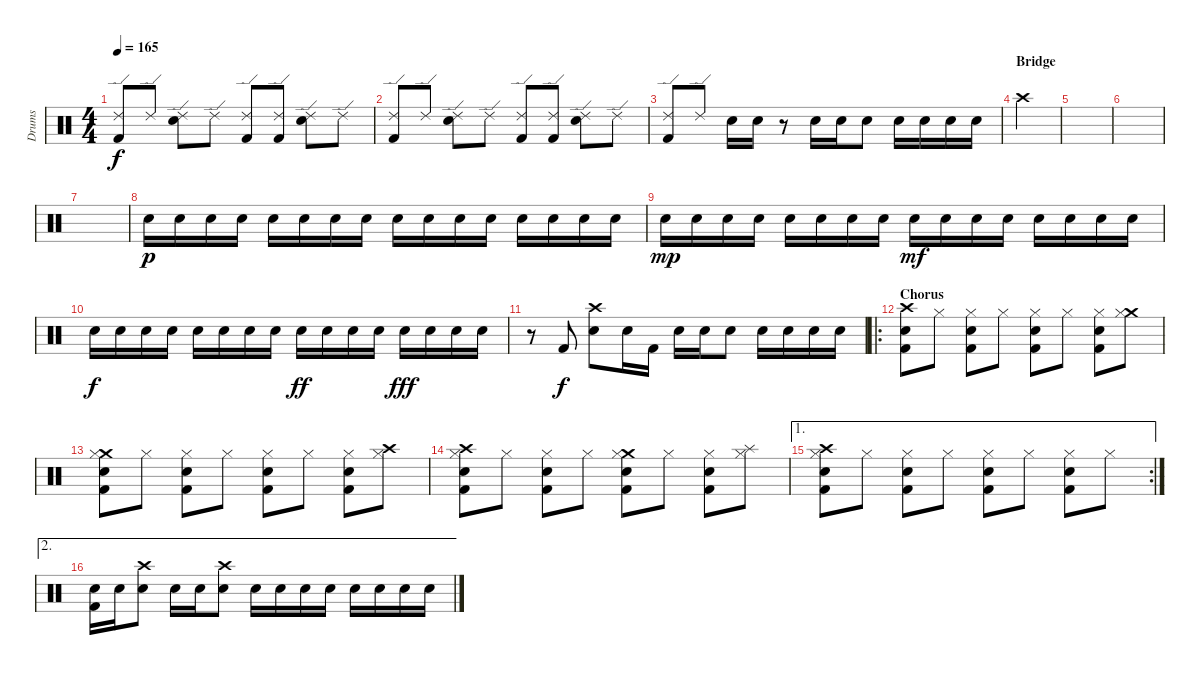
\track ("Drums" "Drums") {instrument percussion}
\staff {score}
\articulation defaults
\ts (4 4)
\tempo 165
\clef neutral
\ks c
("Ride (edge) 2" "Kick (hit) 2").8{dy f} "Ride (edge) 2".8 ("Ride (edge) 2" "Snare (hit) 2").8 "Ride (edge) 2".8 ("Ride (edge) 2" "Kick (hit) 2").8 ("Ride (edge) 2" "Kick (hit) 2").8 ("Ride (edge) 2" "Snare (hit) 2").8 "Ride (edge) 2".8 |
("Ride (edge) 2" "Kick (hit) 2").8 "Ride (edge) 2".8 ("Ride (edge) 2" "Snare (hit) 2").8 "Ride (edge) 2".8 ("Ride (edge) 2" "Kick (hit) 2").8 ("Ride (edge) 2" "Kick (hit) 2").8 ("Ride (edge) 2" "Snare (hit) 2").8 "Ride (edge) 2".8 |
("Ride (edge) 2" "Kick (hit) 2").8 "Ride (edge) 2".8 "Snare (hit) 2".16 "Snare (hit) 2".16 r.8 "Snare (hit) 2".16 "Snare (hit) 2".16 "Snare (hit) 2".8 "Snare (hit) 2".16 "Snare (hit) 2".16 "Snare (hit) 2".16 "Snare (hit) 2".16 |
\section ("" "Bridge")
"Crash high (hit)".4 |
|
|
|
"Snare (hit) 2".16{dy p} "Snare (hit) 2".16 "Snare (hit) 2".16 "Snare (hit) 2".16 "Snare (hit) 2".16 "Snare (hit) 2".16 "Snare (hit) 2".16 "Snare (hit) 2".16 "Snare (hit) 2".16 "Snare (hit) 2".16 "Snare (hit) 2".16 "Snare (hit) 2".16 "Snare (hit) 2".16 "Snare (hit) 2".16 "Snare (hit) 2".16 "Snare (hit) 2".16 |
"Snare (hit) 2".16{dy mp} "Snare (hit) 2".16 "Snare (hit) 2".16 "Snare (hit) 2".16 "Snare (hit) 2".16 "Snare (hit) 2".16 "Snare (hit) 2".16 "Snare (hit) 2".16 "Snare (hit) 2".16{dy mf} "Snare (hit) 2".16 "Snare (hit) 2".16 "Snare (hit) 2".16 "Snare (hit) 2".16 "Snare (hit) 2".16 "Snare (hit) 2".16 "Snare (hit) 2".16 |
"Snare (hit) 2".16{dy f} "Snare (hit) 2".16 "Snare (hit) 2".16 "Snare (hit) 2".16 "Snare (hit) 2".16 "Snare (hit) 2".16 "Snare (hit) 2".16 "Snare (hit) 2".16 "Snare (hit) 2".16{dy ff} "Snare (hit) 2".16 "Snare (hit) 2".16 "Snare (hit) 2".16 "Snare (hit) 2".16{dy fff} "Snare (hit) 2".16 "Snare (hit) 2".16 "Snare (hit) 2".16 |
r.8 "Kick (hit) 2".8{dy f} ("Crash high (hit)" "Snare (hit) 2").8 "Snare (hit) 2".16 "Kick (hit) 2".16 "Snare (hit) 2".16 "Snare (hit) 2".16 "Snare (hit) 2".8 "Snare (hit) 2".16 "Snare (hit) 2".16 "Snare (hit) 2".16 "Snare (hit) 2".16 |
\ro
\section ("" "Chorus")
("Crash high (hit)" "Snare (hit) 2" "Kick (hit) 2").8 "Hi-Hat (closed)".8 ("Hi-Hat (closed)" "Snare (hit) 2" "Kick (hit) 2").8 "Hi-Hat (closed)".8 ("Hi-Hat (closed)" "Snare (hit) 2" "Kick (hit) 2").8 "Hi-Hat (closed)".8 ("Hi-Hat (closed)" "Snare (hit) 2" "Kick (hit) 2").8 ("Crash medium (hit)" "Hi-Hat (closed)").8 |
("Crash medium (hit)" "Hi-Hat (closed)" "Snare (hit) 2" "Kick (hit) 2").8 "Hi-Hat (closed)".8 ("Hi-Hat (closed)" "Snare (hit) 2" "Kick (hit) 2").8 "Hi-Hat (closed)".8 ("Hi-Hat (closed)" "Snare (hit) 2" "Kick (hit) 2").8 "Hi-Hat (closed)".8 ("Hi-Hat (closed)" "Snare (hit) 2" "Kick (hit) 2").8 ("Crash high (hit)" "Hi-Hat (closed)").8 |
("Crash high (hit)" "Hi-Hat (closed)" "Snare (hit) 2" "Kick (hit) 2").8 "Hi-Hat (closed)".8 ("Hi-Hat (closed)" "Snare (hit) 2" "Kick (hit) 2").8 "Hi-Hat (closed)".8 ("Crash medium (hit)" "Hi-Hat (closed)" "Snare (hit) 2" "Kick (hit) 2").8 "Hi-Hat (closed)".8 ("Hi-Hat (closed)" "Snare (hit) 2" "Kick (hit) 2").8 ("Splash (hit)" "Hi-Hat (closed)").8 |
\ae 1
\rc 2
("Crash high (hit)" "Hi-Hat (closed)" "Snare (hit) 2" "Kick (hit) 2").8 "Hi-Hat (closed)".8 ("Hi-Hat (closed)" "Snare (hit) 2" "Kick (hit) 2").8 "Hi-Hat (closed)".8 ("Hi-Hat (closed)" "Snare (hit) 2" "Kick (hit) 2").8 "Hi-Hat (closed)".8 ("Hi-Hat (closed)" "Snare (hit) 2" "Kick (hit) 2").8 "Hi-Hat (closed)".8 |
\ae 2
("Snare (hit) 2" "Kick (hit) 2").16 "Snare (hit) 2".16 ("Crash high (hit)" "Snare (hit) 2").8 "Snare (hit) 2".16 "Snare (hit) 2".16 ("Crash high (hit)" "Snare (hit) 2").8 "Snare (hit) 2".16 "Snare (hit) 2".16 "Snare (hit) 2".16 "Snare (hit) 2".16 "Snare (hit) 2".16 "Snare (hit) 2".16 "Snare (hit) 2".16 "Snare (hit) 2".16
